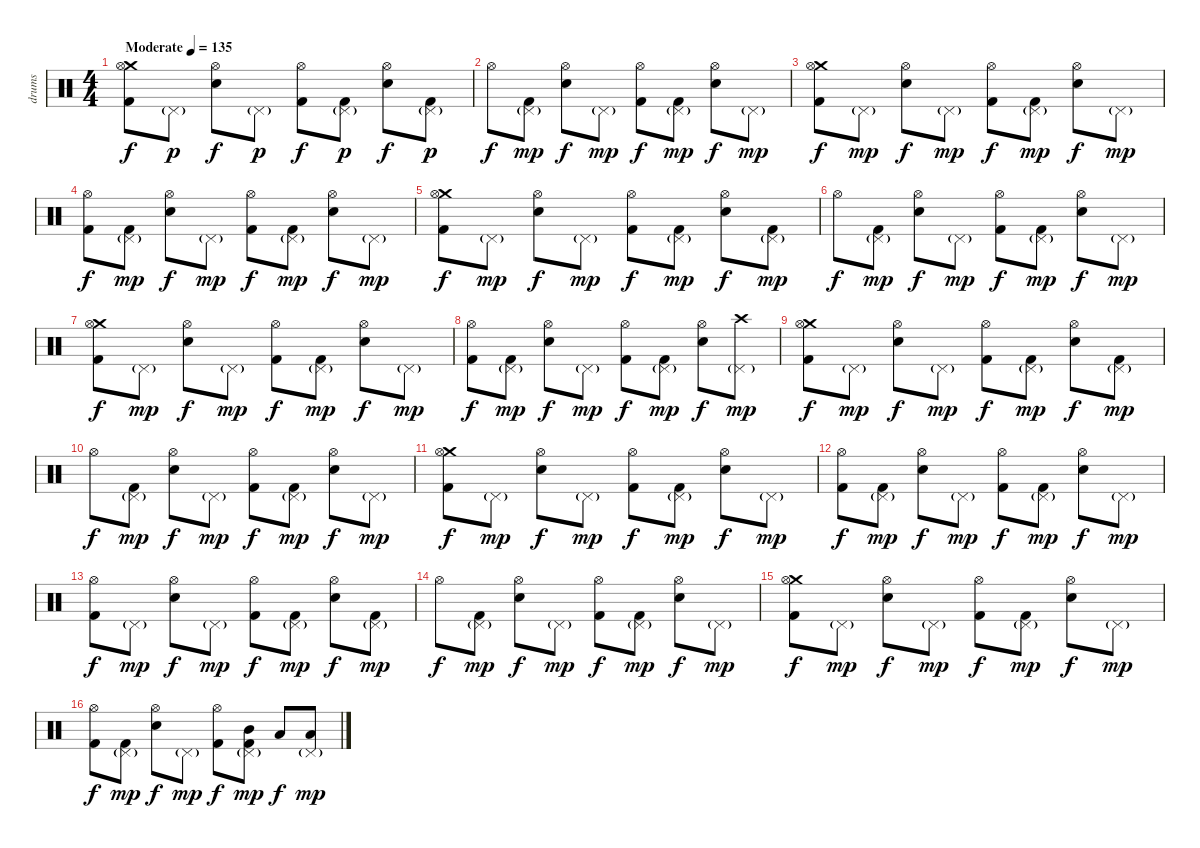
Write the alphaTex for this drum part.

\track ("drums" "drums") {instrument percussion}
\staff {score}
\articulation defaults
\ts (4 4)
\tempo (135 "Moderate")
\clef neutral
\ks c
("Crash medium (hit)" "Hi-Hat (open)" "Kick (hit) 2").8{dy f} "Pedal Hi-Hat (hit)"{g}.8{dy p} ("Hi-Hat (open)" "Snare (hit) 2").8{dy f} "Pedal Hi-Hat (hit)"{g}.8{dy p} ("Hi-Hat (open)" "Kick (hit) 2").8{dy f} ("Pedal Hi-Hat (hit)"{g} "Kick (hit) 2").8{dy p} ("Hi-Hat (open)" "Snare (hit) 2").8{dy f} ("Pedal Hi-Hat (hit)"{g} "Kick (hit) 2").8{dy p} |
"Hi-Hat (open)".8{dy f} ("Pedal Hi-Hat (hit)"{g} "Kick (hit) 2").8{dy mp} ("Hi-Hat (open)" "Snare (hit) 2").8{dy f} "Pedal Hi-Hat (hit)"{g}.8{dy mp} ("Hi-Hat (open)" "Kick (hit) 2").8{dy f} ("Pedal Hi-Hat (hit)"{g} "Kick (hit) 2").8{dy mp} ("Hi-Hat (open)" "Snare (hit) 2").8{dy f} "Pedal Hi-Hat (hit)"{g}.8{dy mp} |
("Crash medium (hit)" "Hi-Hat (open)" "Kick (hit) 2").8{dy f} "Pedal Hi-Hat (hit)"{g}.8{dy mp} ("Hi-Hat (open)" "Snare (hit) 2").8{dy f} "Pedal Hi-Hat (hit)"{g}.8{dy mp} ("Hi-Hat (open)" "Kick (hit) 2").8{dy f} ("Pedal Hi-Hat (hit)"{g} "Kick (hit) 2").8{dy mp} ("Hi-Hat (open)" "Snare (hit) 2").8{dy f} "Pedal Hi-Hat (hit)"{g}.8{dy mp} |
("Hi-Hat (open)" "Kick (hit) 2").8{dy f} ("Pedal Hi-Hat (hit)"{g} "Kick (hit) 2").8{dy mp} ("Hi-Hat (open)" "Snare (hit) 2").8{dy f} "Pedal Hi-Hat (hit)"{g}.8{dy mp} ("Hi-Hat (open)" "Kick (hit) 2").8{dy f} ("Pedal Hi-Hat (hit)"{g} "Kick (hit) 2").8{dy mp} ("Hi-Hat (open)" "Snare (hit) 2").8{dy f} "Pedal Hi-Hat (hit)"{g}.8{dy mp} |
("Crash medium (hit)" "Hi-Hat (open)" "Kick (hit) 2").8{dy f} "Pedal Hi-Hat (hit)"{g}.8{dy mp} ("Hi-Hat (open)" "Snare (hit) 2").8{dy f} "Pedal Hi-Hat (hit)"{g}.8{dy mp} ("Hi-Hat (open)" "Kick (hit) 2").8{dy f} ("Pedal Hi-Hat (hit)"{g} "Kick (hit) 2").8{dy mp} ("Hi-Hat (open)" "Snare (hit) 2").8{dy f} ("Pedal Hi-Hat (hit)"{g} "Kick (hit) 2").8{dy mp} |
"Hi-Hat (open)".8{dy f} ("Pedal Hi-Hat (hit)"{g} "Kick (hit) 2").8{dy mp} ("Hi-Hat (open)" "Snare (hit) 2").8{dy f} "Pedal Hi-Hat (hit)"{g}.8{dy mp} ("Hi-Hat (open)" "Kick (hit) 2").8{dy f} ("Pedal Hi-Hat (hit)"{g} "Kick (hit) 2").8{dy mp} ("Hi-Hat (open)" "Snare (hit) 2").8{dy f} "Pedal Hi-Hat (hit)"{g}.8{dy mp} |
("Crash medium (hit)" "Hi-Hat (open)" "Kick (hit) 2").8{dy f} "Pedal Hi-Hat (hit)"{g}.8{dy mp} ("Hi-Hat (open)" "Snare (hit) 2").8{dy f} "Pedal Hi-Hat (hit)"{g}.8{dy mp} ("Hi-Hat (open)" "Kick (hit) 2").8{dy f} ("Pedal Hi-Hat (hit)"{g} "Kick (hit) 2").8{dy mp} ("Hi-Hat (open)" "Snare (hit) 2").8{dy f} "Pedal Hi-Hat (hit)"{g}.8{dy mp} |
("Hi-Hat (open)" "Kick (hit) 2").8{dy f} ("Pedal Hi-Hat (hit)"{g} "Kick (hit) 2").8{dy mp} ("Hi-Hat (open)" "Snare (hit) 2").8{dy f} "Pedal Hi-Hat (hit)"{g}.8{dy mp} ("Hi-Hat (open)" "Kick (hit) 2").8{dy f} ("Pedal Hi-Hat (hit)"{g} "Kick (hit) 2").8{dy mp} ("Hi-Hat (open)" "Snare (hit) 2").8{dy f} ("Crash high (hit)" "Pedal Hi-Hat (hit)"{g}).8{dy mp} |
("Crash medium (hit)" "Hi-Hat (open)" "Kick (hit) 2").8{dy f} "Pedal Hi-Hat (hit)"{g}.8{dy mp} ("Hi-Hat (open)" "Snare (hit) 2").8{dy f} "Pedal Hi-Hat (hit)"{g}.8{dy mp} ("Hi-Hat (open)" "Kick (hit) 2").8{dy f} ("Pedal Hi-Hat (hit)"{g} "Kick (hit) 2").8{dy mp} ("Hi-Hat (open)" "Snare (hit) 2").8{dy f} ("Pedal Hi-Hat (hit)"{g} "Kick (hit) 2").8{dy mp} |
"Hi-Hat (open)".8{dy f} ("Pedal Hi-Hat (hit)"{g} "Kick (hit) 2").8{dy mp} ("Hi-Hat (open)" "Snare (hit) 2").8{dy f} "Pedal Hi-Hat (hit)"{g}.8{dy mp} ("Hi-Hat (open)" "Kick (hit) 2").8{dy f} ("Pedal Hi-Hat (hit)"{g} "Kick (hit) 2").8{dy mp} ("Hi-Hat (open)" "Snare (hit) 2").8{dy f} "Pedal Hi-Hat (hit)"{g}.8{dy mp} |
("Crash medium (hit)" "Hi-Hat (open)" "Kick (hit) 2").8{dy f} "Pedal Hi-Hat (hit)"{g}.8{dy mp} ("Hi-Hat (open)" "Snare (hit) 2").8{dy f} "Pedal Hi-Hat (hit)"{g}.8{dy mp} ("Hi-Hat (open)" "Kick (hit) 2").8{dy f} ("Pedal Hi-Hat (hit)"{g} "Kick (hit) 2").8{dy mp} ("Hi-Hat (open)" "Snare (hit) 2").8{dy f} "Pedal Hi-Hat (hit)"{g}.8{dy mp} |
("Hi-Hat (open)" "Kick (hit) 2").8{dy f} ("Pedal Hi-Hat (hit)"{g} "Kick (hit) 2").8{dy mp} ("Hi-Hat (open)" "Snare (hit) 2").8{dy f} "Pedal Hi-Hat (hit)"{g}.8{dy mp} ("Hi-Hat (open)" "Kick (hit) 2").8{dy f} ("Pedal Hi-Hat (hit)"{g} "Kick (hit) 2").8{dy mp} ("Hi-Hat (open)" "Snare (hit) 2").8{dy f} "Pedal Hi-Hat (hit)"{g}.8{dy mp} |
("Hi-Hat (open)" "Kick (hit) 2").8{dy f} "Pedal Hi-Hat (hit)"{g}.8{dy mp} ("Hi-Hat (open)" "Snare (hit) 2").8{dy f} "Pedal Hi-Hat (hit)"{g}.8{dy mp} ("Hi-Hat (open)" "Kick (hit) 2").8{dy f} ("Pedal Hi-Hat (hit)"{g} "Kick (hit) 2").8{dy mp} ("Hi-Hat (open)" "Snare (hit) 2").8{dy f} ("Pedal Hi-Hat (hit)"{g} "Kick (hit) 2").8{dy mp} |
"Hi-Hat (open)".8{dy f} ("Pedal Hi-Hat (hit)"{g} "Kick (hit) 2").8{dy mp} ("Hi-Hat (open)" "Snare (hit) 2").8{dy f} "Pedal Hi-Hat (hit)"{g}.8{dy mp} ("Hi-Hat (open)" "Kick (hit) 2").8{dy f} ("Pedal Hi-Hat (hit)"{g} "Kick (hit) 2").8{dy mp} ("Hi-Hat (open)" "Snare (hit) 2").8{dy f} "Pedal Hi-Hat (hit)"{g}.8{dy mp} |
("Crash medium (hit)" "Hi-Hat (open)" "Kick (hit) 2").8{dy f} "Pedal Hi-Hat (hit)"{g}.8{dy mp} ("Hi-Hat (open)" "Snare (hit) 2").8{dy f} "Pedal Hi-Hat (hit)"{g}.8{dy mp} ("Hi-Hat (open)" "Kick (hit) 2").8{dy f} ("Pedal Hi-Hat (hit)"{g} "Kick (hit) 2").8{dy mp} ("Hi-Hat (open)" "Snare (hit) 2").8{dy f} "Pedal Hi-Hat (hit)"{g}.8{dy mp} |
("Hi-Hat (open)" "Kick (hit) 2").8{dy f} ("Pedal Hi-Hat (hit)"{g} "Kick (hit) 2").8{dy mp} ("Hi-Hat (open)" "Snare (hit) 2").8{dy f} "Pedal Hi-Hat (hit)"{g}.8{dy mp} ("Hi-Hat (open)" "Kick (hit) 2").8{dy f} ("Pedal Hi-Hat (hit)"{g} "Mid Tom (hit)" "Kick (hit) 2").8{dy mp} "Low Tom (hit)".8{dy f} ("Pedal Hi-Hat (hit)"{g} "Low Floor Tom (hit)").8{dy mp}
